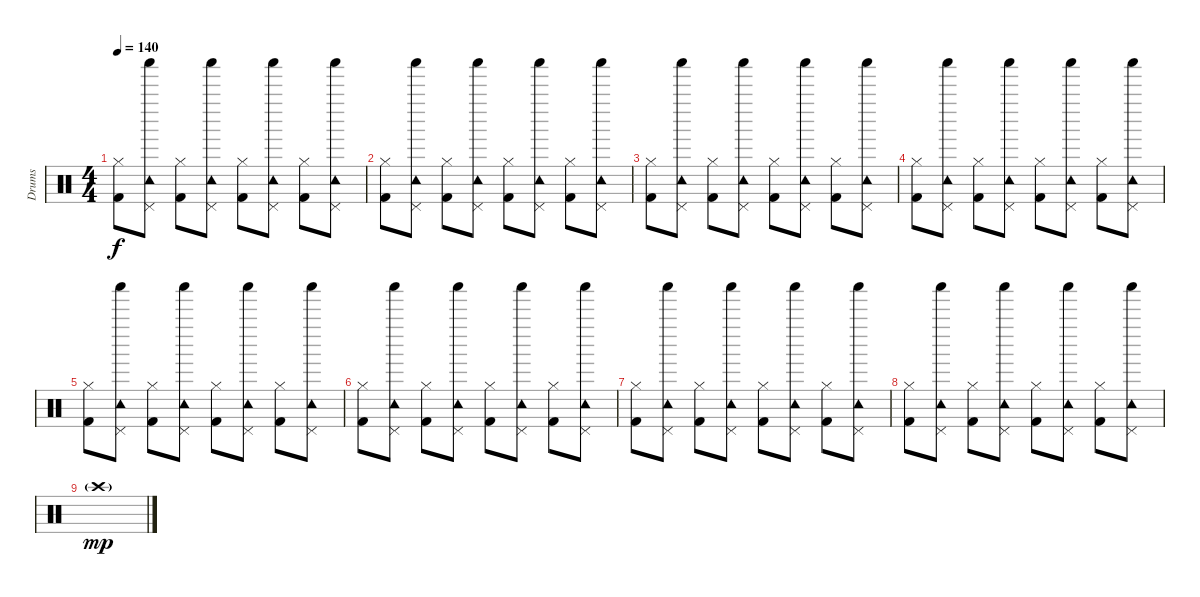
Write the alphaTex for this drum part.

\track ("Drums" "Drums") {instrument percussion}
\staff {score}
\articulation defaults
\ts (4 4)
\tempo 140
\clef neutral
\ks c
("Kick (hit) 2" "Hi-Hat (closed)").8{dy f} ("Pedal Hi-Hat (hit)" "Tambourine (hit)" "Shaker (hit)").8 ("Kick (hit) 2" "Hi-Hat (closed)").8 ("Pedal Hi-Hat (hit)" "Tambourine (hit)" "Shaker (hit)").8 ("Kick (hit) 2" "Hi-Hat (closed)").8 ("Pedal Hi-Hat (hit)" "Tambourine (hit)" "Shaker (hit)").8 ("Kick (hit) 2" "Hi-Hat (closed)").8 ("Pedal Hi-Hat (hit)" "Tambourine (hit)" "Shaker (hit)").8 |
("Kick (hit) 2" "Hi-Hat (closed)").8 ("Pedal Hi-Hat (hit)" "Tambourine (hit)" "Shaker (hit)").8 ("Kick (hit) 2" "Hi-Hat (closed)").8 ("Pedal Hi-Hat (hit)" "Tambourine (hit)" "Shaker (hit)").8 ("Kick (hit) 2" "Hi-Hat (closed)").8 ("Pedal Hi-Hat (hit)" "Tambourine (hit)" "Shaker (hit)").8 ("Kick (hit) 2" "Hi-Hat (closed)").8 ("Pedal Hi-Hat (hit)" "Tambourine (hit)" "Shaker (hit)").8 |
("Kick (hit) 2" "Hi-Hat (closed)").8 ("Pedal Hi-Hat (hit)" "Tambourine (hit)" "Shaker (hit)").8 ("Kick (hit) 2" "Hi-Hat (closed)").8 ("Pedal Hi-Hat (hit)" "Tambourine (hit)" "Shaker (hit)").8 ("Kick (hit) 2" "Hi-Hat (closed)").8 ("Pedal Hi-Hat (hit)" "Tambourine (hit)" "Shaker (hit)").8 ("Kick (hit) 2" "Hi-Hat (closed)").8 ("Pedal Hi-Hat (hit)" "Tambourine (hit)" "Shaker (hit)").8 |
("Kick (hit) 2" "Hi-Hat (closed)").8 ("Pedal Hi-Hat (hit)" "Tambourine (hit)" "Shaker (hit)").8 ("Kick (hit) 2" "Hi-Hat (closed)").8 ("Pedal Hi-Hat (hit)" "Tambourine (hit)" "Shaker (hit)").8 ("Kick (hit) 2" "Hi-Hat (closed)").8 ("Pedal Hi-Hat (hit)" "Tambourine (hit)" "Shaker (hit)").8 ("Kick (hit) 2" "Hi-Hat (closed)").8 ("Pedal Hi-Hat (hit)" "Tambourine (hit)" "Shaker (hit)").8 |
("Kick (hit) 2" "Hi-Hat (closed)").8 ("Pedal Hi-Hat (hit)" "Tambourine (hit)" "Shaker (hit)").8 ("Kick (hit) 2" "Hi-Hat (closed)").8 ("Pedal Hi-Hat (hit)" "Tambourine (hit)" "Shaker (hit)").8 ("Kick (hit) 2" "Hi-Hat (closed)").8 ("Pedal Hi-Hat (hit)" "Tambourine (hit)" "Shaker (hit)").8 ("Kick (hit) 2" "Hi-Hat (closed)").8 ("Pedal Hi-Hat (hit)" "Tambourine (hit)" "Shaker (hit)").8 |
("Kick (hit) 2" "Hi-Hat (closed)").8 ("Pedal Hi-Hat (hit)" "Tambourine (hit)" "Shaker (hit)").8 ("Kick (hit) 2" "Hi-Hat (closed)").8 ("Pedal Hi-Hat (hit)" "Tambourine (hit)" "Shaker (hit)").8 ("Kick (hit) 2" "Hi-Hat (closed)").8 ("Pedal Hi-Hat (hit)" "Tambourine (hit)" "Shaker (hit)").8 ("Kick (hit) 2" "Hi-Hat (closed)").8 ("Pedal Hi-Hat (hit)" "Tambourine (hit)" "Shaker (hit)").8 |
("Kick (hit) 2" "Hi-Hat (closed)").8 ("Pedal Hi-Hat (hit)" "Tambourine (hit)" "Shaker (hit)").8 ("Kick (hit) 2" "Hi-Hat (closed)").8 ("Pedal Hi-Hat (hit)" "Tambourine (hit)" "Shaker (hit)").8 ("Kick (hit) 2" "Hi-Hat (closed)").8 ("Pedal Hi-Hat (hit)" "Tambourine (hit)" "Shaker (hit)").8 ("Kick (hit) 2" "Hi-Hat (closed)").8 ("Pedal Hi-Hat (hit)" "Tambourine (hit)" "Shaker (hit)").8 |
("Kick (hit) 2" "Hi-Hat (closed)").8 ("Pedal Hi-Hat (hit)" "Tambourine (hit)" "Shaker (hit)").8 ("Kick (hit) 2" "Hi-Hat (closed)").8 ("Pedal Hi-Hat (hit)" "Tambourine (hit)" "Shaker (hit)").8 ("Kick (hit) 2" "Hi-Hat (closed)").8 ("Pedal Hi-Hat (hit)" "Tambourine (hit)" "Shaker (hit)").8 ("Kick (hit) 2" "Hi-Hat (closed)").8 ("Pedal Hi-Hat (hit)" "Tambourine (hit)" "Shaker (hit)").8 |
"Crash high (hit)"{g}.1{dy mp}
